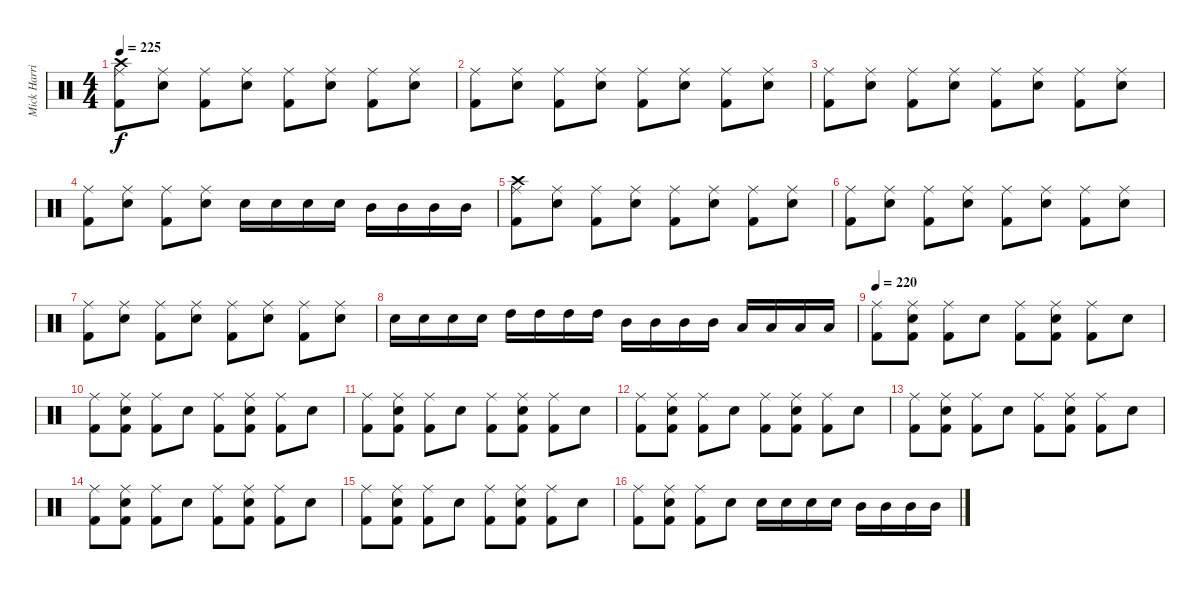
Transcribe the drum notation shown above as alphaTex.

\track ("Mick Harris (Drums)" "Mick Harri") {instrument percussion}
\staff {score}
\articulation defaults
\ts (4 4)
\tempo 225
\clef neutral
\ks c
("Kick (hit) 2" "Crash high (hit)" "Ride (middle)").8{dy f} ("Electric Snare (hit)" "Ride (middle)").8 ("Kick (hit) 2" "Ride (middle)").8 ("Electric Snare (hit)" "Ride (middle)").8 ("Kick (hit) 2" "Ride (middle)").8 ("Electric Snare (hit)" "Ride (middle)").8 ("Kick (hit) 2" "Ride (middle)").8 ("Electric Snare (hit)" "Ride (middle)").8 |
("Kick (hit) 2" "Ride (middle)").8 ("Electric Snare (hit)" "Ride (middle)").8 ("Kick (hit) 2" "Ride (middle)").8 ("Electric Snare (hit)" "Ride (middle)").8 ("Kick (hit) 2" "Ride (middle)").8 ("Electric Snare (hit)" "Ride (middle)").8 ("Kick (hit) 2" "Ride (middle)").8 ("Electric Snare (hit)" "Ride (middle)").8 |
("Kick (hit) 2" "Ride (middle)").8 ("Electric Snare (hit)" "Ride (middle)").8 ("Kick (hit) 2" "Ride (middle)").8 ("Electric Snare (hit)" "Ride (middle)").8 ("Kick (hit) 2" "Ride (middle)").8 ("Electric Snare (hit)" "Ride (middle)").8 ("Kick (hit) 2" "Ride (middle)").8 ("Electric Snare (hit)" "Ride (middle)").8 |
("Kick (hit) 2" "Ride (middle)").8 ("Electric Snare (hit)" "Ride (middle)").8 ("Kick (hit) 2" "Ride (middle)").8 ("Electric Snare (hit)" "Ride (middle)").8 "Electric Snare (hit)".16 "Electric Snare (hit)".16 "Electric Snare (hit)".16 "Electric Snare (hit)".16 "Mid Tom (hit)".16 "Mid Tom (hit)".16 "Mid Tom (hit)".16 "Mid Tom (hit)".16 |
("Kick (hit) 2" "Crash high (hit)" "Ride (middle)").8 ("Electric Snare (hit)" "Ride (middle)").8 ("Kick (hit) 2" "Ride (middle)").8 ("Electric Snare (hit)" "Ride (middle)").8 ("Kick (hit) 2" "Ride (middle)").8 ("Electric Snare (hit)" "Ride (middle)").8 ("Kick (hit) 2" "Ride (middle)").8 ("Electric Snare (hit)" "Ride (middle)").8 |
("Kick (hit) 2" "Ride (middle)").8 ("Electric Snare (hit)" "Ride (middle)").8 ("Kick (hit) 2" "Ride (middle)").8 ("Electric Snare (hit)" "Ride (middle)").8 ("Kick (hit) 2" "Ride (middle)").8 ("Electric Snare (hit)" "Ride (middle)").8 ("Kick (hit) 2" "Ride (middle)").8 ("Electric Snare (hit)" "Ride (middle)").8 |
("Kick (hit) 2" "Ride (middle)").8 ("Electric Snare (hit)" "Ride (middle)").8 ("Kick (hit) 2" "Ride (middle)").8 ("Electric Snare (hit)" "Ride (middle)").8 ("Kick (hit) 2" "Ride (middle)").8 ("Electric Snare (hit)" "Ride (middle)").8 ("Kick (hit) 2" "Ride (middle)").8 ("Electric Snare (hit)" "Ride (middle)").8 |
"Electric Snare (hit)".16 "Electric Snare (hit)".16 "Electric Snare (hit)".16 "Electric Snare (hit)".16 "High Tom (hit)".16 "High Tom (hit)".16 "High Tom (hit)".16 "High Tom (hit)".16 "Mid Tom (hit)".16 "Mid Tom (hit)".16 "Mid Tom (hit)".16 "Mid Tom (hit)".16 "Low Tom (hit)".16 "Low Tom (hit)".16 "Low Tom (hit)".16 "Low Tom (hit)".16 |
\tempo 220
("Kick (hit) 2" "Ride (middle)").8 ("Kick (hit) 2" "Electric Snare (hit)" "Ride (middle)").8 ("Kick (hit) 2" "Ride (middle)").8 "Electric Snare (hit)".8 ("Kick (hit) 2" "Ride (middle)").8 ("Kick (hit) 2" "Electric Snare (hit)" "Ride (middle)").8 ("Kick (hit) 2" "Ride (middle)").8 "Electric Snare (hit)".8 |
("Kick (hit) 2" "Ride (middle)").8 ("Kick (hit) 2" "Electric Snare (hit)" "Ride (middle)").8 ("Kick (hit) 2" "Ride (middle)").8 "Electric Snare (hit)".8 ("Kick (hit) 2" "Ride (middle)").8 ("Kick (hit) 2" "Electric Snare (hit)" "Ride (middle)").8 ("Kick (hit) 2" "Ride (middle)").8 "Electric Snare (hit)".8 |
("Kick (hit) 2" "Ride (middle)").8 ("Kick (hit) 2" "Electric Snare (hit)" "Ride (middle)").8 ("Kick (hit) 2" "Ride (middle)").8 "Electric Snare (hit)".8 ("Kick (hit) 2" "Ride (middle)").8 ("Kick (hit) 2" "Electric Snare (hit)" "Ride (middle)").8 ("Kick (hit) 2" "Ride (middle)").8 "Electric Snare (hit)".8 |
("Kick (hit) 2" "Ride (middle)").8 ("Kick (hit) 2" "Electric Snare (hit)" "Ride (middle)").8 ("Kick (hit) 2" "Ride (middle)").8 "Electric Snare (hit)".8 ("Kick (hit) 2" "Ride (middle)").8 ("Kick (hit) 2" "Electric Snare (hit)" "Ride (middle)").8 ("Kick (hit) 2" "Ride (middle)").8 "Electric Snare (hit)".8 |
("Kick (hit) 2" "Ride (middle)").8 ("Kick (hit) 2" "Electric Snare (hit)" "Ride (middle)").8 ("Kick (hit) 2" "Ride (middle)").8 "Electric Snare (hit)".8 ("Kick (hit) 2" "Ride (middle)").8 ("Kick (hit) 2" "Electric Snare (hit)" "Ride (middle)").8 ("Kick (hit) 2" "Ride (middle)").8 "Electric Snare (hit)".8 |
("Kick (hit) 2" "Ride (middle)").8 ("Kick (hit) 2" "Electric Snare (hit)" "Ride (middle)").8 ("Kick (hit) 2" "Ride (middle)").8 "Electric Snare (hit)".8 ("Kick (hit) 2" "Ride (middle)").8 ("Kick (hit) 2" "Electric Snare (hit)" "Ride (middle)").8 ("Kick (hit) 2" "Ride (middle)").8 "Electric Snare (hit)".8 |
("Kick (hit) 2" "Ride (middle)").8 ("Kick (hit) 2" "Electric Snare (hit)" "Ride (middle)").8 ("Kick (hit) 2" "Ride (middle)").8 "Electric Snare (hit)".8 ("Kick (hit) 2" "Ride (middle)").8 ("Kick (hit) 2" "Electric Snare (hit)" "Ride (middle)").8 ("Kick (hit) 2" "Ride (middle)").8 "Electric Snare (hit)".8 |
("Kick (hit) 2" "Ride (middle)").8 ("Kick (hit) 2" "Electric Snare (hit)" "Ride (middle)").8 ("Kick (hit) 2" "Ride (middle)").8 "Electric Snare (hit)".8 "Electric Snare (hit)".16 "Electric Snare (hit)".16 "Electric Snare (hit)".16 "Electric Snare (hit)".16 "Mid Tom (hit)".16 "Mid Tom (hit)".16 "Mid Tom (hit)".16 "Mid Tom (hit)".16
